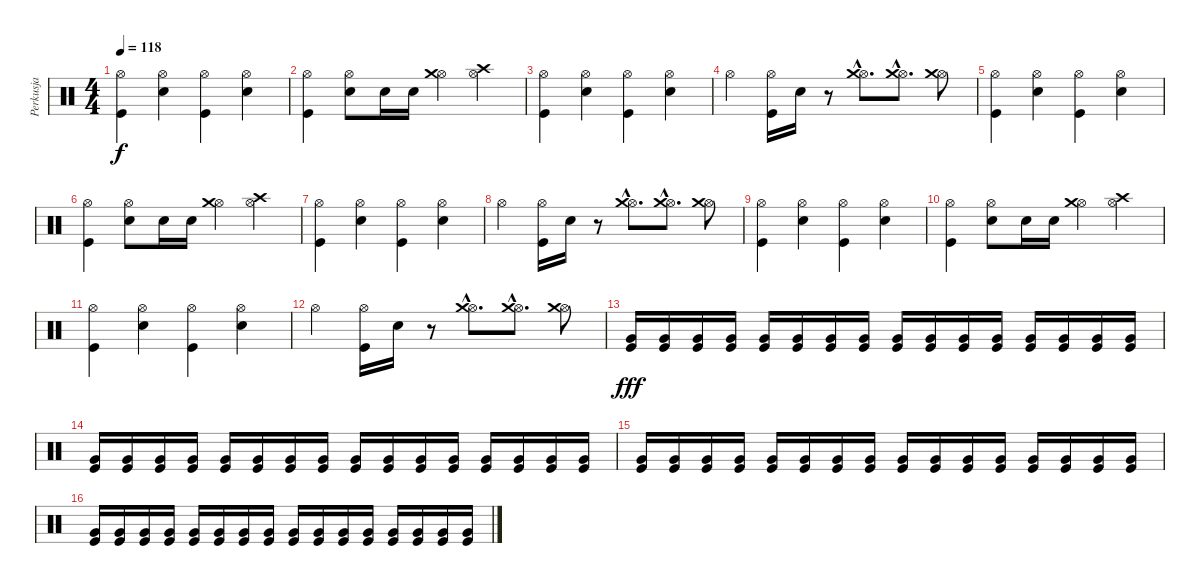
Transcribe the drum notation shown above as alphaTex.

\track ("Perkusja" "Perkusja") {instrument percussion}
\staff {score}
\articulation defaults
\ts (4 4)
\tempo 118
\clef neutral
\ks c
("Hi-Hat (open)" "Kick (hit)").4{dy f} ("Hi-Hat (open)" "Electric Snare (hit)").4 ("Hi-Hat (open)" "Kick (hit)").4 ("Hi-Hat (open)" "Electric Snare (hit)").4 |
("Hi-Hat (open)" "Kick (hit)").4 ("Hi-Hat (open)" "Electric Snare (hit)").8 "Electric Snare (hit)".16 "Electric Snare (hit)".16 ("Hi-Hat (open)" "Crash medium (hit)").4 ("Hi-Hat (open)" "Crash high (hit)").4 |
("Hi-Hat (open)" "Kick (hit)").4 ("Hi-Hat (open)" "Electric Snare (hit)").4 ("Hi-Hat (open)" "Kick (hit)").4 ("Hi-Hat (open)" "Electric Snare (hit)").4 |
"Hi-Hat (open)".4 ("Hi-Hat (open)" "Kick (hit)").16 "Electric Snare (hit)".16 r.8 ("Hi-Hat (open)"{hac} "Crash medium (hit)"{hac}).8{d} ("Hi-Hat (open)"{hac} "Crash medium (hit)"{hac}).8{d} ("Hi-Hat (open)" "Crash medium (hit)").8 |
("Hi-Hat (open)" "Kick (hit)").4 ("Hi-Hat (open)" "Electric Snare (hit)").4 ("Hi-Hat (open)" "Kick (hit)").4 ("Hi-Hat (open)" "Electric Snare (hit)").4 |
("Hi-Hat (open)" "Kick (hit)").4 ("Hi-Hat (open)" "Electric Snare (hit)").8 "Electric Snare (hit)".16 "Electric Snare (hit)".16 ("Hi-Hat (open)" "Crash medium (hit)").4 ("Hi-Hat (open)" "Crash high (hit)").4 |
("Hi-Hat (open)" "Kick (hit)").4 ("Hi-Hat (open)" "Electric Snare (hit)").4 ("Hi-Hat (open)" "Kick (hit)").4 ("Hi-Hat (open)" "Electric Snare (hit)").4 |
"Hi-Hat (open)".4 ("Hi-Hat (open)" "Kick (hit)").16 "Electric Snare (hit)".16 r.8 ("Hi-Hat (open)"{hac} "Crash medium (hit)"{hac}).8{d} ("Hi-Hat (open)"{hac} "Crash medium (hit)"{hac}).8{d} ("Hi-Hat (open)" "Crash medium (hit)").8 |
("Hi-Hat (open)" "Kick (hit)").4 ("Hi-Hat (open)" "Electric Snare (hit)").4 ("Hi-Hat (open)" "Kick (hit)").4 ("Hi-Hat (open)" "Electric Snare (hit)").4 |
("Hi-Hat (open)" "Kick (hit)").4 ("Hi-Hat (open)" "Electric Snare (hit)").8 "Electric Snare (hit)".16 "Electric Snare (hit)".16 ("Hi-Hat (open)" "Crash medium (hit)").4 ("Hi-Hat (open)" "Crash high (hit)").4 |
("Hi-Hat (open)" "Kick (hit)").4 ("Hi-Hat (open)" "Electric Snare (hit)").4 ("Hi-Hat (open)" "Kick (hit)").4 ("Hi-Hat (open)" "Electric Snare (hit)").4 |
"Hi-Hat (open)".4 ("Hi-Hat (open)" "Kick (hit)").16 "Electric Snare (hit)".16 r.8 ("Hi-Hat (open)"{hac} "Crash medium (hit)"{hac}).8{d} ("Hi-Hat (open)"{hac} "Crash medium (hit)"{hac}).8{d} ("Hi-Hat (open)" "Crash medium (hit)").8 |
("Very Low Tom (hit)" "Kick (hit)").16{dy fff} ("Very Low Tom (hit)" "Kick (hit)").16 ("Very Low Tom (hit)" "Kick (hit)").16 ("Very Low Tom (hit)" "Kick (hit)").16 ("Very Low Tom (hit)" "Kick (hit)").16 ("Very Low Tom (hit)" "Kick (hit)").16 ("Very Low Tom (hit)" "Kick (hit)").16 ("Very Low Tom (hit)" "Kick (hit)").16 ("Very Low Tom (hit)" "Kick (hit)").16 ("Very Low Tom (hit)" "Kick (hit)").16 ("Very Low Tom (hit)" "Kick (hit)").16 ("Very Low Tom (hit)" "Kick (hit)").16 ("Very Low Tom (hit)" "Kick (hit)").16 ("Very Low Tom (hit)" "Kick (hit)").16 ("Very Low Tom (hit)" "Kick (hit)").16 ("Very Low Tom (hit)" "Kick (hit)").16 |
("Very Low Tom (hit)" "Kick (hit)").16 ("Very Low Tom (hit)" "Kick (hit)").16 ("Very Low Tom (hit)" "Kick (hit)").16 ("Very Low Tom (hit)" "Kick (hit)").16 ("Very Low Tom (hit)" "Kick (hit)").16 ("Very Low Tom (hit)" "Kick (hit)").16 ("Very Low Tom (hit)" "Kick (hit)").16 ("Very Low Tom (hit)" "Kick (hit)").16 ("Very Low Tom (hit)" "Kick (hit)").16 ("Very Low Tom (hit)" "Kick (hit)").16 ("Very Low Tom (hit)" "Kick (hit)").16 ("Very Low Tom (hit)" "Kick (hit)").16 ("Very Low Tom (hit)" "Kick (hit)").16 ("Very Low Tom (hit)" "Kick (hit)").16 ("Very Low Tom (hit)" "Kick (hit)").16 ("Very Low Tom (hit)" "Kick (hit)").16 |
("Very Low Tom (hit)" "Kick (hit)").16 ("Very Low Tom (hit)" "Kick (hit)").16 ("Very Low Tom (hit)" "Kick (hit)").16 ("Very Low Tom (hit)" "Kick (hit)").16 ("Very Low Tom (hit)" "Kick (hit)").16 ("Very Low Tom (hit)" "Kick (hit)").16 ("Very Low Tom (hit)" "Kick (hit)").16 ("Very Low Tom (hit)" "Kick (hit)").16 ("Very Low Tom (hit)" "Kick (hit)").16 ("Very Low Tom (hit)" "Kick (hit)").16 ("Very Low Tom (hit)" "Kick (hit)").16 ("Very Low Tom (hit)" "Kick (hit)").16 ("Very Low Tom (hit)" "Kick (hit)").16 ("Very Low Tom (hit)" "Kick (hit)").16 ("Very Low Tom (hit)" "Kick (hit)").16 ("Very Low Tom (hit)" "Kick (hit)").16 |
("Very Low Tom (hit)" "Kick (hit)").16 ("Very Low Tom (hit)" "Kick (hit)").16 ("Very Low Tom (hit)" "Kick (hit)").16 ("Very Low Tom (hit)" "Kick (hit)").16 ("Very Low Tom (hit)" "Kick (hit)").16 ("Very Low Tom (hit)" "Kick (hit)").16 ("Very Low Tom (hit)" "Kick (hit)").16 ("Very Low Tom (hit)" "Kick (hit)").16 ("Very Low Tom (hit)" "Kick (hit)").16 ("Very Low Tom (hit)" "Kick (hit)").16 ("Very Low Tom (hit)" "Kick (hit)").16 ("Very Low Tom (hit)" "Kick (hit)").16 ("Very Low Tom (hit)" "Kick (hit)").16 ("Very Low Tom (hit)" "Kick (hit)").16 ("Very Low Tom (hit)" "Kick (hit)").16 ("Very Low Tom (hit)" "Kick (hit)").16
